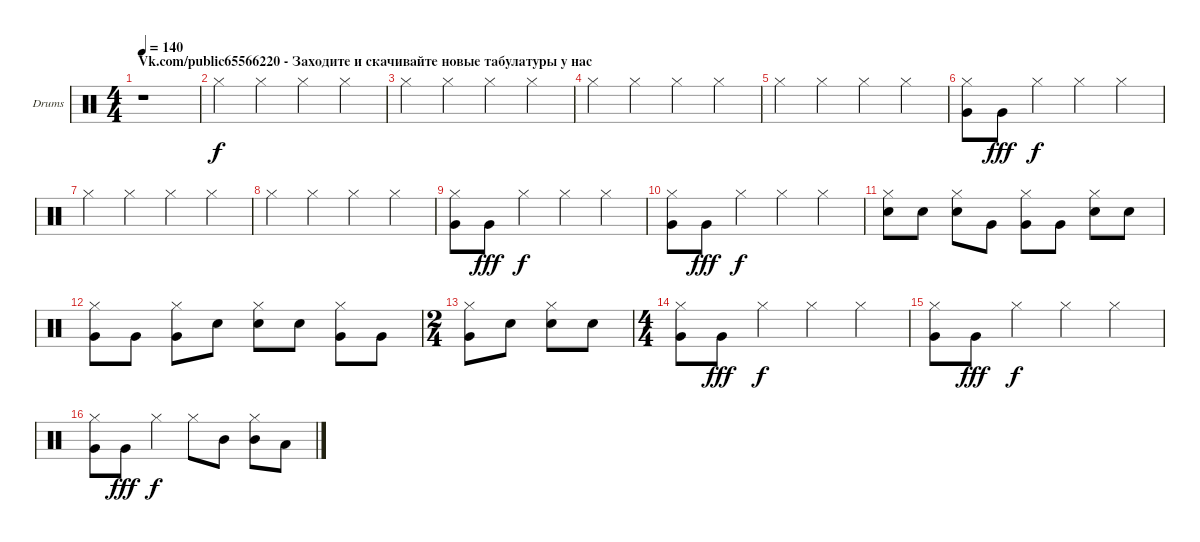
\bracketExtendMode groupsimilarinstruments
\firstSystemTrackNameOrientation horizontal
\otherSystemsTrackNameOrientation horizontal
\track ("Ударные" "Drums") {instrument percussion}
\staff {score}
\articulation defaults
\ts (4 4)
\section ("" "Vk.com/public65566220 - Заходите и скачивайте новые табулатуры у нас")
\tempo 140
\clef neutral
\ks c
r.1{dy f} |
"Hi-Hat (closed)".4 "Hi-Hat (closed)".4 "Hi-Hat (closed)".4 "Hi-Hat (closed)".4 |
"Hi-Hat (closed)".4 "Hi-Hat (closed)".4 "Hi-Hat (closed)".4 "Hi-Hat (closed)".4 |
"Hi-Hat (closed)".4 "Hi-Hat (closed)".4 "Hi-Hat (closed)".4 "Hi-Hat (closed)".4 |
"Hi-Hat (closed)".4 "Hi-Hat (closed)".4 "Hi-Hat (closed)".4 "Hi-Hat (closed)".4 |
("Hi-Hat (closed)" "Very Low Tom (hit)").8 "Very Low Tom (hit)".8{dy fff} "Hi-Hat (closed)".4{dy f} "Hi-Hat (closed)".4 "Hi-Hat (closed)".4 |
"Hi-Hat (closed)".4 "Hi-Hat (closed)".4 "Hi-Hat (closed)".4 "Hi-Hat (closed)".4 |
"Hi-Hat (closed)".4 "Hi-Hat (closed)".4 "Hi-Hat (closed)".4 "Hi-Hat (closed)".4 |
("Hi-Hat (closed)" "Very Low Tom (hit)").8 "Very Low Tom (hit)".8{dy fff} "Hi-Hat (closed)".4{dy f} "Hi-Hat (closed)".4 "Hi-Hat (closed)".4 |
("Hi-Hat (closed)" "Very Low Tom (hit)").8 "Very Low Tom (hit)".8{dy fff} "Hi-Hat (closed)".4{dy f} "Hi-Hat (closed)".4 "Hi-Hat (closed)".4 |
("Hi-Hat (closed)" "Snare (hit) 2").8 "Snare (hit) 2".8 ("Hi-Hat (closed)" "Snare (hit) 2").8 "Very Low Tom (hit)".8 ("Hi-Hat (closed)" "Very Low Tom (hit)").8 "Very Low Tom (hit)".8 ("Hi-Hat (closed)" "Snare (hit) 2").8 "Snare (hit) 2".8 |
("Hi-Hat (closed)" "Very Low Tom (hit)").8 "Very Low Tom (hit)".8 ("Hi-Hat (closed)" "Very Low Tom (hit)").8 "Snare (hit) 2".8 ("Hi-Hat (closed)" "Snare (hit) 2").8 "Snare (hit) 2".8 ("Hi-Hat (closed)" "Very Low Tom (hit)").8 "Very Low Tom (hit)".8 |
\ts (2 4)
("Hi-Hat (closed)" "Very Low Tom (hit)").8 "Snare (hit) 2".8 ("Hi-Hat (closed)" "Snare (hit) 2").8 "Snare (hit) 2".8 |
\ts (4 4)
("Hi-Hat (closed)" "Very Low Tom (hit)").8 "Very Low Tom (hit)".8{dy fff} "Hi-Hat (closed)".4{dy f} "Hi-Hat (closed)".4 "Hi-Hat (closed)".4 |
("Hi-Hat (closed)" "Very Low Tom (hit)").8 "Very Low Tom (hit)".8{dy fff} "Hi-Hat (closed)".4{dy f} "Hi-Hat (closed)".4 "Hi-Hat (closed)".4 |
("Hi-Hat (closed)" "Very Low Tom (hit)").8 "Very Low Tom (hit)".8{dy fff} "Hi-Hat (closed)".4{dy f} "Hi-Hat (closed)".8 "Mid Tom (hit)".8 ("Hi-Hat (closed)" "Mid Tom (hit)").8 "Low Tom (hit)".8
